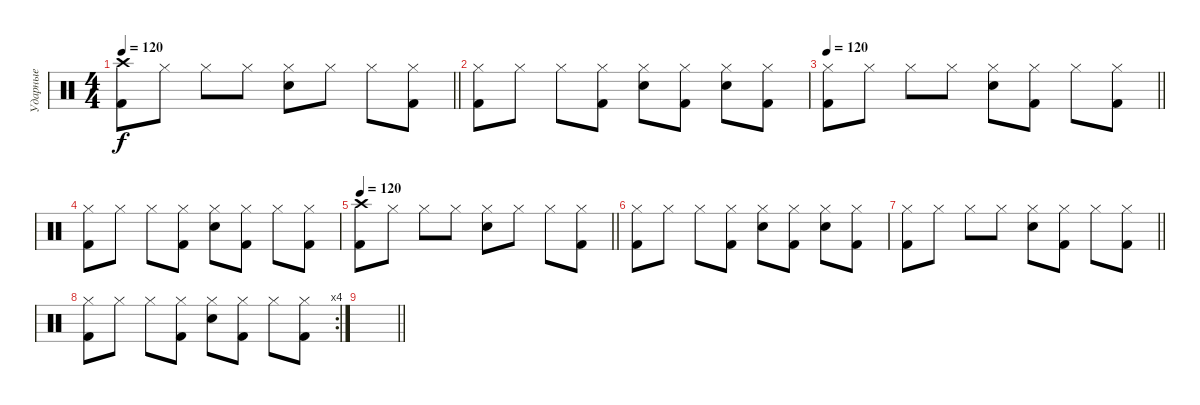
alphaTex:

\track ("Ударные" "Ударные") {instrument percussion}
\staff {score}
\articulation defaults
\ts (4 4)
\tempo 120
\clef neutral
\barLineRight lightlight
\ks c
("Crash high (hit)" "Kick (hit) 2").8{dy f} "Hi-Hat (closed)".8 "Hi-Hat (closed)".8 "Hi-Hat (closed)".8 ("Hi-Hat (closed)" "Electric Snare (hit)").8 "Hi-Hat (closed)".8 "Hi-Hat (closed)".8 ("Hi-Hat (closed)" "Kick (hit) 2").8 |
("Hi-Hat (closed)" "Kick (hit) 2").8 "Hi-Hat (closed)".8 "Hi-Hat (closed)".8 ("Hi-Hat (closed)" "Kick (hit) 2").8 ("Hi-Hat (closed)" "Electric Snare (hit)").8 ("Hi-Hat (closed)" "Kick (hit) 2").8 ("Hi-Hat (closed)" "Electric Snare (hit)").8 ("Hi-Hat (closed)" "Kick (hit) 2").8 |
\tempo 120
\barLineRight lightlight
("Hi-Hat (closed)" "Kick (hit) 2").8 "Hi-Hat (closed)".8 "Hi-Hat (closed)".8 "Hi-Hat (closed)".8 ("Hi-Hat (closed)" "Electric Snare (hit)").8 ("Hi-Hat (closed)" "Kick (hit) 2").8 "Hi-Hat (closed)".8 ("Hi-Hat (closed)" "Kick (hit) 2").8 |
("Hi-Hat (closed)" "Kick (hit) 2").8 "Hi-Hat (closed)".8 "Hi-Hat (closed)".8 ("Hi-Hat (closed)" "Kick (hit) 2").8 ("Hi-Hat (closed)" "Electric Snare (hit)").8 ("Hi-Hat (closed)" "Kick (hit) 2").8 "Hi-Hat (closed)".8 ("Hi-Hat (closed)" "Kick (hit) 2").8 |
\tempo 120
\barLineRight lightlight
("Crash high (hit)" "Kick (hit) 2").8 "Hi-Hat (closed)".8 "Hi-Hat (closed)".8 "Hi-Hat (closed)".8 ("Hi-Hat (closed)" "Electric Snare (hit)").8 "Hi-Hat (closed)".8 "Hi-Hat (closed)".8 ("Hi-Hat (closed)" "Kick (hit) 2").8 |
("Hi-Hat (closed)" "Kick (hit) 2").8 "Hi-Hat (closed)".8 "Hi-Hat (closed)".8 ("Hi-Hat (closed)" "Kick (hit) 2").8 ("Hi-Hat (closed)" "Electric Snare (hit)").8 ("Hi-Hat (closed)" "Kick (hit) 2").8 ("Hi-Hat (closed)" "Electric Snare (hit)").8 ("Hi-Hat (closed)" "Kick (hit) 2").8 |
\barLineRight lightlight
("Hi-Hat (closed)" "Kick (hit) 2").8 "Hi-Hat (closed)".8 "Hi-Hat (closed)".8 "Hi-Hat (closed)".8 ("Hi-Hat (closed)" "Electric Snare (hit)").8 ("Hi-Hat (closed)" "Kick (hit) 2").8 "Hi-Hat (closed)".8 ("Hi-Hat (closed)" "Kick (hit) 2").8 |
\rc 4
("Hi-Hat (closed)" "Kick (hit) 2").8 "Hi-Hat (closed)".8 "Hi-Hat (closed)".8 ("Hi-Hat (closed)" "Kick (hit) 2").8 ("Hi-Hat (closed)" "Electric Snare (hit)").8 ("Hi-Hat (closed)" "Kick (hit) 2").8 "Hi-Hat (closed)".8 ("Hi-Hat (closed)" "Kick (hit) 2").8 |
\barLineRight lightlight
